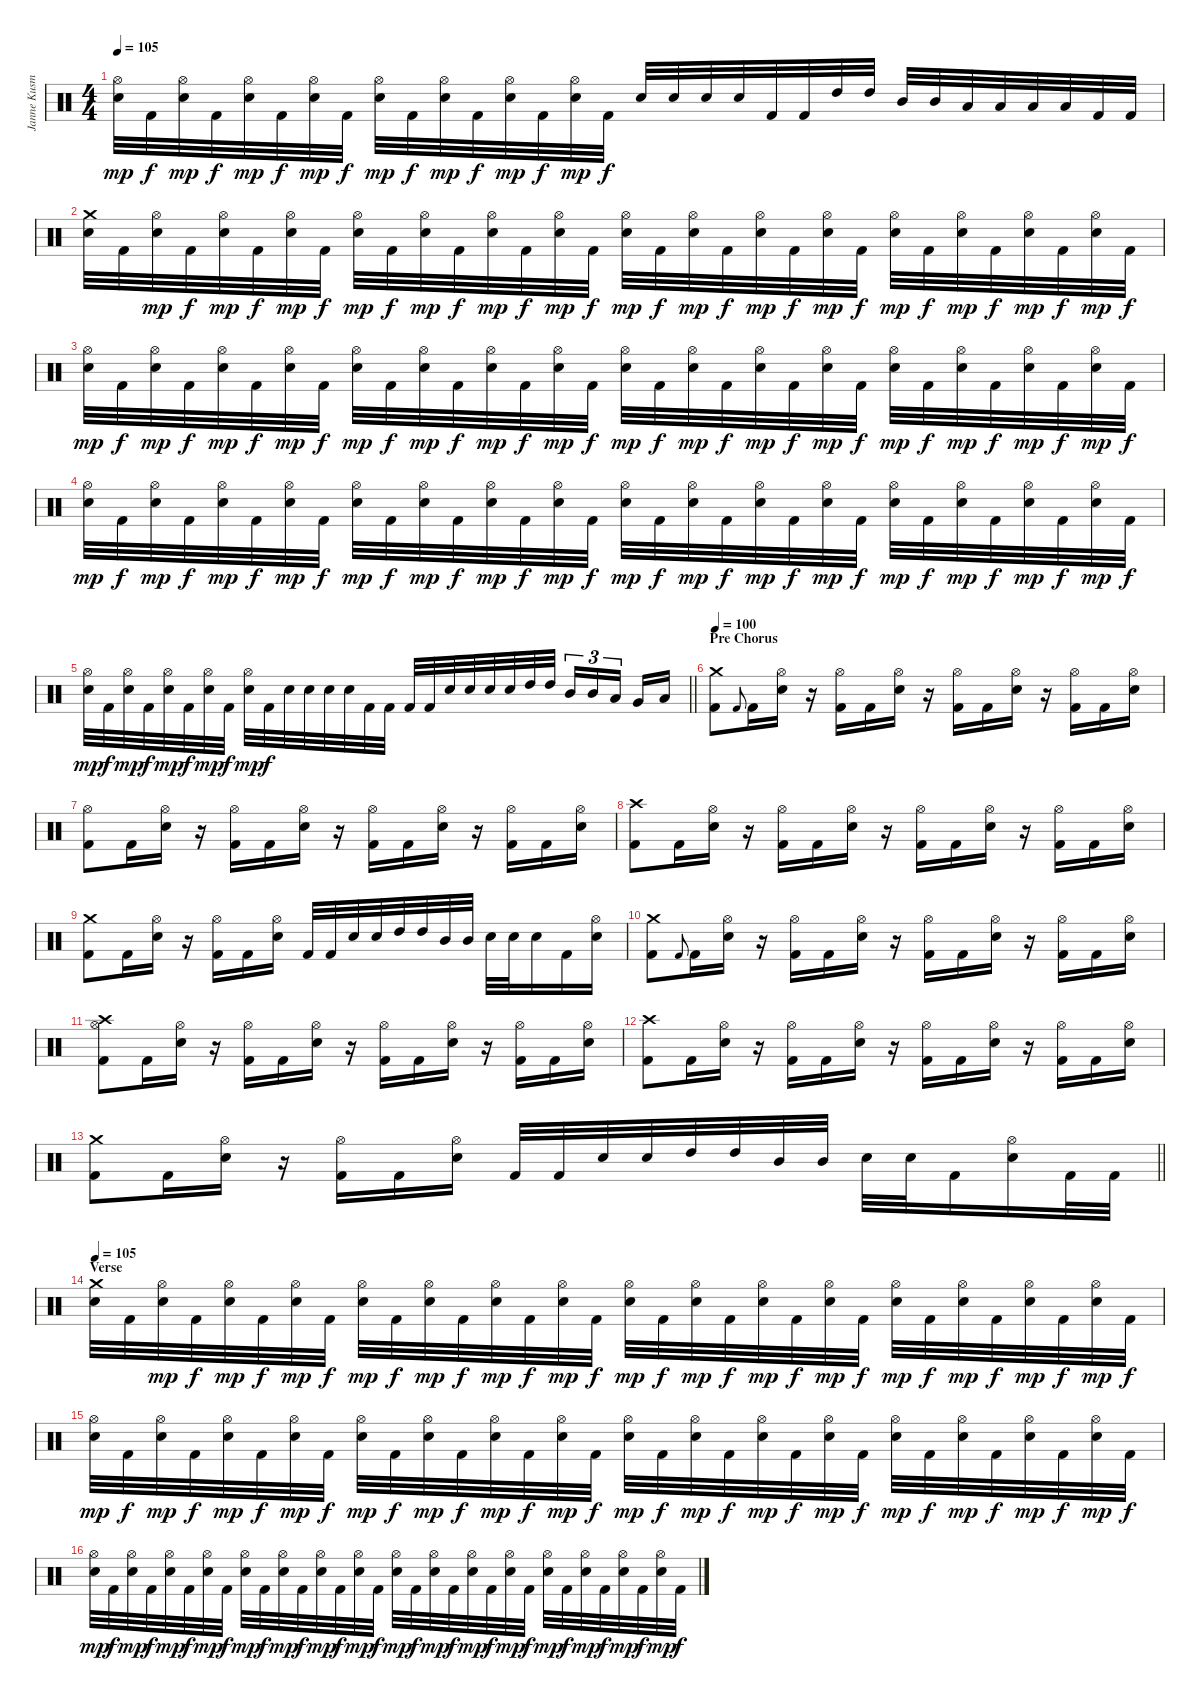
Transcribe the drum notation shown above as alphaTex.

\track ("Janne Kusmin " "Janne Kusm") {instrument percussion}
\staff {score}
\articulation defaults
\ts (4 4)
\tempo 105
\clef neutral
\ks c
("Hi-Hat (open)" "Electric Snare (hit)").32{dy mp} "Kick (hit) 2".32{dy f} ("Hi-Hat (open)" "Electric Snare (hit)").32{dy mp} "Kick (hit) 2".32{dy f} ("Hi-Hat (open)" "Electric Snare (hit)").32{dy mp} "Kick (hit) 2".32{dy f} ("Hi-Hat (open)" "Electric Snare (hit)").32{dy mp} "Kick (hit) 2".32{dy f} ("Hi-Hat (open)" "Electric Snare (hit)").32{dy mp} "Kick (hit) 2".32{dy f} ("Hi-Hat (open)" "Electric Snare (hit)").32{dy mp} "Kick (hit) 2".32{dy f} ("Hi-Hat (open)" "Electric Snare (hit)").32{dy mp} "Kick (hit) 2".32{dy f} ("Hi-Hat (open)" "Electric Snare (hit)").32{dy mp} "Kick (hit) 2".32{dy f} "Electric Snare (hit)".32 "Electric Snare (hit)".32 "Electric Snare (hit)".32 "Electric Snare (hit)".32 "Kick (hit) 2".32 "Kick (hit) 2".32 "High Tom (hit)".32 "High Tom (hit)".32 "Mid Tom (hit)".32 "Mid Tom (hit)".32 "Low Tom (hit)".32 "Low Tom (hit)".32 "Low Floor Tom (hit)".32 "Low Floor Tom (hit)".32 "Kick (hit) 2".32 "Kick (hit) 2".32 |
("Crash medium (hit)" "Electric Snare (hit)").32 "Kick (hit) 2".32 ("Hi-Hat (open)" "Electric Snare (hit)").32{dy mp} "Kick (hit) 2".32{dy f} ("Hi-Hat (open)" "Electric Snare (hit)").32{dy mp} "Kick (hit) 2".32{dy f} ("Hi-Hat (open)" "Electric Snare (hit)").32{dy mp} "Kick (hit) 2".32{dy f} ("Hi-Hat (open)" "Electric Snare (hit)").32{dy mp} "Kick (hit) 2".32{dy f} ("Hi-Hat (open)" "Electric Snare (hit)").32{dy mp} "Kick (hit) 2".32{dy f} ("Hi-Hat (open)" "Electric Snare (hit)").32{dy mp} "Kick (hit) 2".32{dy f} ("Hi-Hat (open)" "Electric Snare (hit)").32{dy mp} "Kick (hit) 2".32{dy f} ("Hi-Hat (open)" "Electric Snare (hit)").32{dy mp} "Kick (hit) 2".32{dy f} ("Hi-Hat (open)" "Electric Snare (hit)").32{dy mp} "Kick (hit) 2".32{dy f} ("Hi-Hat (open)" "Electric Snare (hit)").32{dy mp} "Kick (hit) 2".32{dy f} ("Hi-Hat (open)" "Electric Snare (hit)").32{dy mp} "Kick (hit) 2".32{dy f} ("Hi-Hat (open)" "Electric Snare (hit)").32{dy mp} "Kick (hit) 2".32{dy f} ("Hi-Hat (open)" "Electric Snare (hit)").32{dy mp} "Kick (hit) 2".32{dy f} ("Hi-Hat (open)" "Electric Snare (hit)").32{dy mp} "Kick (hit) 2".32{dy f} ("Hi-Hat (open)" "Electric Snare (hit)").32{dy mp} "Kick (hit) 2".32{dy f} |
("Hi-Hat (open)" "Electric Snare (hit)").32{dy mp} "Kick (hit) 2".32{dy f} ("Hi-Hat (open)" "Electric Snare (hit)").32{dy mp} "Kick (hit) 2".32{dy f} ("Hi-Hat (open)" "Electric Snare (hit)").32{dy mp} "Kick (hit) 2".32{dy f} ("Hi-Hat (open)" "Electric Snare (hit)").32{dy mp} "Kick (hit) 2".32{dy f} ("Hi-Hat (open)" "Electric Snare (hit)").32{dy mp} "Kick (hit) 2".32{dy f} ("Hi-Hat (open)" "Electric Snare (hit)").32{dy mp} "Kick (hit) 2".32{dy f} ("Hi-Hat (open)" "Electric Snare (hit)").32{dy mp} "Kick (hit) 2".32{dy f} ("Hi-Hat (open)" "Electric Snare (hit)").32{dy mp} "Kick (hit) 2".32{dy f} ("Hi-Hat (open)" "Electric Snare (hit)").32{dy mp} "Kick (hit) 2".32{dy f} ("Hi-Hat (open)" "Electric Snare (hit)").32{dy mp} "Kick (hit) 2".32{dy f} ("Hi-Hat (open)" "Electric Snare (hit)").32{dy mp} "Kick (hit) 2".32{dy f} ("Hi-Hat (open)" "Electric Snare (hit)").32{dy mp} "Kick (hit) 2".32{dy f} ("Hi-Hat (open)" "Electric Snare (hit)").32{dy mp} "Kick (hit) 2".32{dy f} ("Hi-Hat (open)" "Electric Snare (hit)").32{dy mp} "Kick (hit) 2".32{dy f} ("Hi-Hat (open)" "Electric Snare (hit)").32{dy mp} "Kick (hit) 2".32{dy f} ("Hi-Hat (open)" "Electric Snare (hit)").32{dy mp} "Kick (hit) 2".32{dy f} |
("Hi-Hat (open)" "Electric Snare (hit)").32{dy mp} "Kick (hit) 2".32{dy f} ("Hi-Hat (open)" "Electric Snare (hit)").32{dy mp} "Kick (hit) 2".32{dy f} ("Hi-Hat (open)" "Electric Snare (hit)").32{dy mp} "Kick (hit) 2".32{dy f} ("Hi-Hat (open)" "Electric Snare (hit)").32{dy mp} "Kick (hit) 2".32{dy f} ("Hi-Hat (open)" "Electric Snare (hit)").32{dy mp} "Kick (hit) 2".32{dy f} ("Hi-Hat (open)" "Electric Snare (hit)").32{dy mp} "Kick (hit) 2".32{dy f} ("Hi-Hat (open)" "Electric Snare (hit)").32{dy mp} "Kick (hit) 2".32{dy f} ("Hi-Hat (open)" "Electric Snare (hit)").32{dy mp} "Kick (hit) 2".32{dy f} ("Hi-Hat (open)" "Electric Snare (hit)").32{dy mp} "Kick (hit) 2".32{dy f} ("Hi-Hat (open)" "Electric Snare (hit)").32{dy mp} "Kick (hit) 2".32{dy f} ("Hi-Hat (open)" "Electric Snare (hit)").32{dy mp} "Kick (hit) 2".32{dy f} ("Hi-Hat (open)" "Electric Snare (hit)").32{dy mp} "Kick (hit) 2".32{dy f} ("Hi-Hat (open)" "Electric Snare (hit)").32{dy mp} "Kick (hit) 2".32{dy f} ("Hi-Hat (open)" "Electric Snare (hit)").32{dy mp} "Kick (hit) 2".32{dy f} ("Hi-Hat (open)" "Electric Snare (hit)").32{dy mp} "Kick (hit) 2".32{dy f} ("Hi-Hat (open)" "Electric Snare (hit)").32{dy mp} "Kick (hit) 2".32{dy f} |
\barLineRight lightlight
("Hi-Hat (open)" "Electric Snare (hit)").32{dy mp} "Kick (hit) 2".32{dy f} ("Hi-Hat (open)" "Electric Snare (hit)").32{dy mp} "Kick (hit) 2".32{dy f} ("Hi-Hat (open)" "Electric Snare (hit)").32{dy mp} "Kick (hit) 2".32{dy f} ("Hi-Hat (open)" "Electric Snare (hit)").32{dy mp} "Kick (hit) 2".32{dy f} ("Hi-Hat (open)" "Electric Snare (hit)").32{dy mp} "Kick (hit) 2".32{dy f} "Electric Snare (hit)".32 "Electric Snare (hit)".32 "Electric Snare (hit)".32 "Electric Snare (hit)".32 "Kick (hit) 2".32 "Kick (hit) 2".32 "Kick (hit) 2".32 "Kick (hit) 2".32 "Electric Snare (hit)".32 "Electric Snare (hit)".32 "Electric Snare (hit)".32 "Electric Snare (hit)".32 "High Tom (hit)".32 "High Tom (hit)".32 "Mid Tom (hit)".16{tu (3 2)} "Mid Tom (hit)".16{tu (3 2)} "Low Tom (hit)".16{tu (3 2) beam splitsecondary} "Very Low Tom (hit)".16 "Low Floor Tom (hit)".16 |
\section ("" "Pre Chorus")
\tempo 100
("Crash medium (hit)" "Kick (hit) 2").8 "Kick (hit) 2".8{gr onbeat} "Kick (hit) 2".16 ("Hi-Hat (open)" "Electric Snare (hit)").16 r.16 ("Hi-Hat (open)" "Kick (hit) 2").16 "Kick (hit) 2".16 ("Hi-Hat (open)" "Electric Snare (hit)").16 r.16 ("Hi-Hat (open)" "Kick (hit) 2").16 "Kick (hit) 2".16 ("Hi-Hat (open)" "Electric Snare (hit)").16 r.16 ("Hi-Hat (open)" "Kick (hit) 2").16 "Kick (hit) 2".16 ("Hi-Hat (open)" "Electric Snare (hit)").16 |
("Hi-Hat (open)" "Kick (hit) 2").8 "Kick (hit) 2".16 ("Hi-Hat (open)" "Electric Snare (hit)").16 r.16 ("Hi-Hat (open)" "Kick (hit) 2").16 "Kick (hit) 2".16 ("Hi-Hat (open)" "Electric Snare (hit)").16 r.16 ("Hi-Hat (open)" "Kick (hit) 2").16 "Kick (hit) 2".16 ("Hi-Hat (open)" "Electric Snare (hit)").16 r.16 ("Hi-Hat (open)" "Kick (hit) 2").16 "Kick (hit) 2".16 ("Hi-Hat (open)" "Electric Snare (hit)").16 |
("Crash high (hit)" "Kick (hit) 2").8 "Kick (hit) 2".16 ("Hi-Hat (open)" "Electric Snare (hit)").16 r.16 ("Hi-Hat (open)" "Kick (hit) 2").16 "Kick (hit) 2".16 ("Hi-Hat (open)" "Electric Snare (hit)").16 r.16 ("Hi-Hat (open)" "Kick (hit) 2").16 "Kick (hit) 2".16 ("Hi-Hat (open)" "Electric Snare (hit)").16 r.16 ("Hi-Hat (open)" "Kick (hit) 2").16 "Kick (hit) 2".16 ("Hi-Hat (open)" "Electric Snare (hit)").16 |
("Crash medium (hit)" "Kick (hit) 2").8 "Kick (hit) 2".16 ("Hi-Hat (open)" "Electric Snare (hit)").16 r.16 ("Hi-Hat (open)" "Kick (hit) 2").16 "Kick (hit) 2".16 ("Hi-Hat (open)" "Electric Snare (hit)").16 "Kick (hit) 2".32 "Kick (hit) 2".32 "Electric Snare (hit)".32 "Electric Snare (hit)".32 "High Tom (hit)".32 "High Tom (hit)".32 "Mid Tom (hit)".32 "Mid Tom (hit)".32 "Electric Snare (hit)".32 "Electric Snare (hit)".32 "Electric Snare (hit)".16 "Kick (hit) 2".16 ("Hi-Hat (open)" "Electric Snare (hit)").16 |
("Crash medium (hit)" "Kick (hit) 2").8 "Kick (hit) 2".8{gr onbeat} "Kick (hit) 2".16 ("Hi-Hat (open)" "Electric Snare (hit)").16 r.16 ("Hi-Hat (open)" "Kick (hit) 2").16 "Kick (hit) 2".16 ("Hi-Hat (open)" "Electric Snare (hit)").16 r.16 ("Hi-Hat (open)" "Kick (hit) 2").16 "Kick (hit) 2".16 ("Hi-Hat (open)" "Electric Snare (hit)").16 r.16 ("Hi-Hat (open)" "Kick (hit) 2").16 "Kick (hit) 2".16 ("Hi-Hat (open)" "Electric Snare (hit)").16 |
("Crash high (hit)" "Hi-Hat (open)" "Kick (hit) 2").8 "Kick (hit) 2".16 ("Hi-Hat (open)" "Electric Snare (hit)").16 r.16 ("Hi-Hat (open)" "Kick (hit) 2").16 "Kick (hit) 2".16 ("Hi-Hat (open)" "Electric Snare (hit)").16 r.16 ("Hi-Hat (open)" "Kick (hit) 2").16 "Kick (hit) 2".16 ("Hi-Hat (open)" "Electric Snare (hit)").16 r.16 ("Hi-Hat (open)" "Kick (hit) 2").16 "Kick (hit) 2".16 ("Hi-Hat (open)" "Electric Snare (hit)").16 |
("Crash high (hit)" "Kick (hit) 2").8 "Kick (hit) 2".16 ("Hi-Hat (open)" "Electric Snare (hit)").16 r.16 ("Hi-Hat (open)" "Kick (hit) 2").16 "Kick (hit) 2".16 ("Hi-Hat (open)" "Electric Snare (hit)").16 r.16 ("Hi-Hat (open)" "Kick (hit) 2").16 "Kick (hit) 2".16 ("Hi-Hat (open)" "Electric Snare (hit)").16 r.16 ("Hi-Hat (open)" "Kick (hit) 2").16 "Kick (hit) 2".16 ("Hi-Hat (open)" "Electric Snare (hit)").16 |
\barLineRight lightlight
("Crash medium (hit)" "Kick (hit) 2").8 "Kick (hit) 2".16 ("Hi-Hat (open)" "Electric Snare (hit)").16 r.16 ("Hi-Hat (open)" "Kick (hit) 2").16 "Kick (hit) 2".16 ("Hi-Hat (open)" "Electric Snare (hit)").16 "Kick (hit) 2".32 "Kick (hit) 2".32 "Electric Snare (hit)".32 "Electric Snare (hit)".32 "High Tom (hit)".32 "High Tom (hit)".32 "Mid Tom (hit)".32 "Mid Tom (hit)".32 "Electric Snare (hit)".32 "Electric Snare (hit)".32 "Kick (hit) 2".16 ("Hi-Hat (open)" "Electric Snare (hit)").16 "Kick (hit) 2".32 "Kick (hit) 2".32 |
\section ("" "Verse")
\tempo 105
("Crash medium (hit)" "Electric Snare (hit)").32 "Kick (hit) 2".32 ("Hi-Hat (open)" "Electric Snare (hit)").32{dy mp} "Kick (hit) 2".32{dy f} ("Hi-Hat (open)" "Electric Snare (hit)").32{dy mp} "Kick (hit) 2".32{dy f} ("Hi-Hat (open)" "Electric Snare (hit)").32{dy mp} "Kick (hit) 2".32{dy f} ("Hi-Hat (open)" "Electric Snare (hit)").32{dy mp} "Kick (hit) 2".32{dy f} ("Hi-Hat (open)" "Electric Snare (hit)").32{dy mp} "Kick (hit) 2".32{dy f} ("Hi-Hat (open)" "Electric Snare (hit)").32{dy mp} "Kick (hit) 2".32{dy f} ("Hi-Hat (open)" "Electric Snare (hit)").32{dy mp} "Kick (hit) 2".32{dy f} ("Hi-Hat (open)" "Electric Snare (hit)").32{dy mp} "Kick (hit) 2".32{dy f} ("Hi-Hat (open)" "Electric Snare (hit)").32{dy mp} "Kick (hit) 2".32{dy f} ("Hi-Hat (open)" "Electric Snare (hit)").32{dy mp} "Kick (hit) 2".32{dy f} ("Hi-Hat (open)" "Electric Snare (hit)").32{dy mp} "Kick (hit) 2".32{dy f} ("Hi-Hat (open)" "Electric Snare (hit)").32{dy mp} "Kick (hit) 2".32{dy f} ("Hi-Hat (open)" "Electric Snare (hit)").32{dy mp} "Kick (hit) 2".32{dy f} ("Hi-Hat (open)" "Electric Snare (hit)").32{dy mp} "Kick (hit) 2".32{dy f} ("Hi-Hat (open)" "Electric Snare (hit)").32{dy mp} "Kick (hit) 2".32{dy f} |
("Hi-Hat (open)" "Electric Snare (hit)").32{dy mp} "Kick (hit) 2".32{dy f} ("Hi-Hat (open)" "Electric Snare (hit)").32{dy mp} "Kick (hit) 2".32{dy f} ("Hi-Hat (open)" "Electric Snare (hit)").32{dy mp} "Kick (hit) 2".32{dy f} ("Hi-Hat (open)" "Electric Snare (hit)").32{dy mp} "Kick (hit) 2".32{dy f} ("Hi-Hat (open)" "Electric Snare (hit)").32{dy mp} "Kick (hit) 2".32{dy f} ("Hi-Hat (open)" "Electric Snare (hit)").32{dy mp} "Kick (hit) 2".32{dy f} ("Hi-Hat (open)" "Electric Snare (hit)").32{dy mp} "Kick (hit) 2".32{dy f} ("Hi-Hat (open)" "Electric Snare (hit)").32{dy mp} "Kick (hit) 2".32{dy f} ("Hi-Hat (open)" "Electric Snare (hit)").32{dy mp} "Kick (hit) 2".32{dy f} ("Hi-Hat (open)" "Electric Snare (hit)").32{dy mp} "Kick (hit) 2".32{dy f} ("Hi-Hat (open)" "Electric Snare (hit)").32{dy mp} "Kick (hit) 2".32{dy f} ("Hi-Hat (open)" "Electric Snare (hit)").32{dy mp} "Kick (hit) 2".32{dy f} ("Hi-Hat (open)" "Electric Snare (hit)").32{dy mp} "Kick (hit) 2".32{dy f} ("Hi-Hat (open)" "Electric Snare (hit)").32{dy mp} "Kick (hit) 2".32{dy f} ("Hi-Hat (open)" "Electric Snare (hit)").32{dy mp} "Kick (hit) 2".32{dy f} ("Hi-Hat (open)" "Electric Snare (hit)").32{dy mp} "Kick (hit) 2".32{dy f} |
("Hi-Hat (open)" "Electric Snare (hit)").32{dy mp} "Kick (hit) 2".32{dy f} ("Hi-Hat (open)" "Electric Snare (hit)").32{dy mp} "Kick (hit) 2".32{dy f} ("Hi-Hat (open)" "Electric Snare (hit)").32{dy mp} "Kick (hit) 2".32{dy f} ("Hi-Hat (open)" "Electric Snare (hit)").32{dy mp} "Kick (hit) 2".32{dy f} ("Hi-Hat (open)" "Electric Snare (hit)").32{dy mp} "Kick (hit) 2".32{dy f} ("Hi-Hat (open)" "Electric Snare (hit)").32{dy mp} "Kick (hit) 2".32{dy f} ("Hi-Hat (open)" "Electric Snare (hit)").32{dy mp} "Kick (hit) 2".32{dy f} ("Hi-Hat (open)" "Electric Snare (hit)").32{dy mp} "Kick (hit) 2".32{dy f} ("Hi-Hat (open)" "Electric Snare (hit)").32{dy mp} "Kick (hit) 2".32{dy f} ("Hi-Hat (open)" "Electric Snare (hit)").32{dy mp} "Kick (hit) 2".32{dy f} ("Hi-Hat (open)" "Electric Snare (hit)").32{dy mp} "Kick (hit) 2".32{dy f} ("Hi-Hat (open)" "Electric Snare (hit)").32{dy mp} "Kick (hit) 2".32{dy f} ("Hi-Hat (open)" "Electric Snare (hit)").32{dy mp} "Kick (hit) 2".32{dy f} ("Hi-Hat (open)" "Electric Snare (hit)").32{dy mp} "Kick (hit) 2".32{dy f} ("Hi-Hat (open)" "Electric Snare (hit)").32{dy mp} "Kick (hit) 2".32{dy f} ("Hi-Hat (open)" "Electric Snare (hit)").32{dy mp} "Kick (hit) 2".32{dy f}
